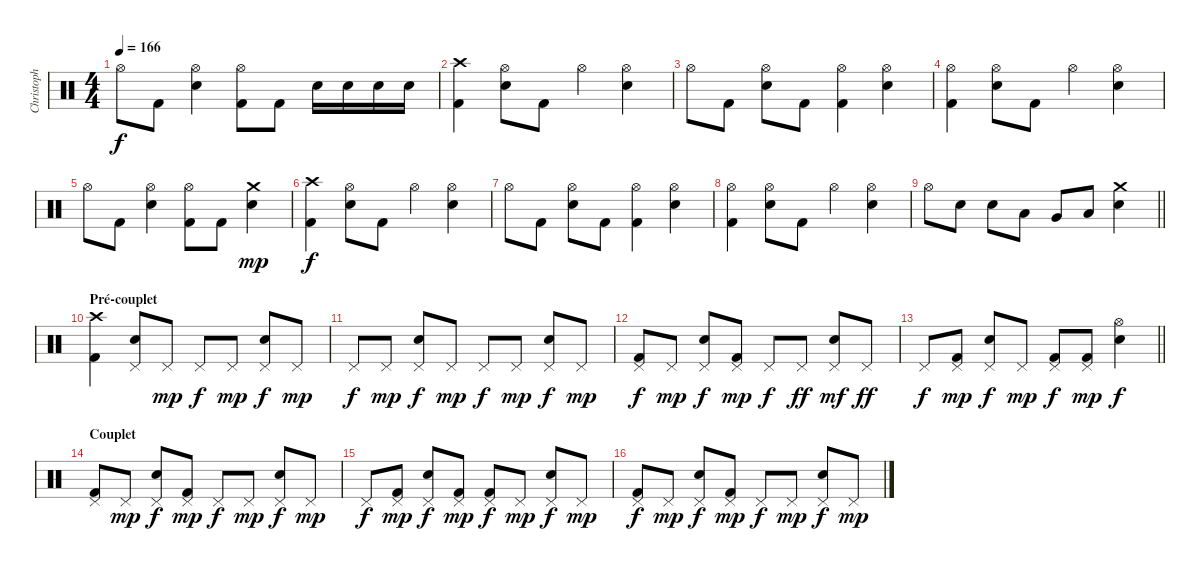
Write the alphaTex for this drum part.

\track ("Christoph" "Christoph") {instrument percussion}
\staff {score}
\articulation defaults
\ts (4 4)
\tempo 166
\clef neutral
\ks c "Hi-Hat (open)".8{dy f} "Kick (hit) 2".8
("Hi-Hat (open)" "Electric Snare (hit)").4 ("Hi-Hat (open)" "Kick (hit) 2").8 "Kick (hit) 2".8 "Electric Snare (hit)".16 "Electric Snare (hit)".16 "Electric Snare (hit)".16 "Electric Snare (hit)".16 |
("Crash high (hit)" "Kick (hit) 2").4 ("Hi-Hat (open)" "Electric Snare (hit)").8 "Kick (hit) 2".8 "Hi-Hat (open)".4 ("Hi-Hat (open)" "Electric Snare (hit)").4 |
"Hi-Hat (open)".8 "Kick (hit) 2".8 ("Hi-Hat (open)" "Electric Snare (hit)").8 "Kick (hit) 2".8 ("Hi-Hat (open)" "Kick (hit) 2").4 ("Hi-Hat (open)" "Electric Snare (hit)").4 |
("Hi-Hat (open)" "Kick (hit) 2").4 ("Hi-Hat (open)" "Electric Snare (hit)").8 "Kick (hit) 2".8 "Hi-Hat (open)".4 ("Hi-Hat (open)" "Electric Snare (hit)").4 |
"Hi-Hat (open)".8 "Kick (hit) 2".8 ("Hi-Hat (open)" "Electric Snare (hit)").4 ("Hi-Hat (open)" "Kick (hit) 2").8 "Kick (hit) 2".8 ("Crash medium (hit)" "Electric Snare (hit)").4{dy mp} |
("Crash high (hit)" "Kick (hit) 2").4{dy f} ("Hi-Hat (open)" "Electric Snare (hit)").8 "Kick (hit) 2".8 "Hi-Hat (open)".4 ("Hi-Hat (open)" "Electric Snare (hit)").4 |
"Hi-Hat (open)".8 "Kick (hit) 2".8 ("Hi-Hat (open)" "Electric Snare (hit)").8 "Kick (hit) 2".8 ("Hi-Hat (open)" "Kick (hit) 2").4 ("Hi-Hat (open)" "Electric Snare (hit)").4 |
("Hi-Hat (open)" "Kick (hit) 2").4 ("Hi-Hat (open)" "Electric Snare (hit)").8 "Kick (hit) 2".8 "Hi-Hat (open)".4 ("Hi-Hat (open)" "Electric Snare (hit)").4 |
\barLineRight lightlight "Hi-Hat (open)".8 "Electric Snare (hit)".8 "Electric Snare (hit)".8 "Low Tom (hit)".8 "Very Low Tom (hit)".8 "Low Floor Tom (hit)".8
("Crash medium (hit)" "Electric Snare (hit)").4 |
\section ("" "Pré-couplet")
("Crash high (hit)" "Kick (hit) 2").4 ("Pedal Hi-Hat (hit)" "Electric Snare (hit)").8 "Pedal Hi-Hat (hit)".8{dy mp} "Pedal Hi-Hat (hit)".8{dy f} "Pedal Hi-Hat (hit)".8{dy mp} ("Pedal Hi-Hat (hit)" "Electric Snare (hit)").8{dy f} "Pedal Hi-Hat (hit)".8{dy mp} |
"Pedal Hi-Hat (hit)".8{dy f} "Pedal Hi-Hat (hit)".8{dy mp} ("Pedal Hi-Hat (hit)" "Electric Snare (hit)").8{dy f} "Pedal Hi-Hat (hit)".8{dy mp} "Pedal Hi-Hat (hit)".8{dy f} "Pedal Hi-Hat (hit)".8{dy mp} ("Pedal Hi-Hat (hit)" "Electric Snare (hit)").8{dy f} "Pedal Hi-Hat (hit)".8{dy mp} |
("Pedal Hi-Hat (hit)" "Kick (hit) 2").8{dy f} "Pedal Hi-Hat (hit)".8{dy mp} ("Pedal Hi-Hat (hit)" "Electric Snare (hit)").8{dy f} ("Pedal Hi-Hat (hit)" "Kick (hit) 2").8{dy mp} "Pedal Hi-Hat (hit)".8{dy f} "Pedal Hi-Hat (hit)".8{dy ff} ("Pedal Hi-Hat (hit)" "Electric Snare (hit)").8{dy mf} "Pedal Hi-Hat (hit)".8{dy ff} |
\barLineRight lightlight "Pedal Hi-Hat (hit)".8{dy f}
("Pedal Hi-Hat (hit)" "Kick (hit) 2").8{dy mp} ("Pedal Hi-Hat (hit)" "Electric Snare (hit)").8{dy f} "Pedal Hi-Hat (hit)".8{dy mp} ("Pedal Hi-Hat (hit)" "Kick (hit) 2").8{dy f} ("Pedal Hi-Hat (hit)" "Kick (hit) 2").8{dy mp} ("Hi-Hat (open)" "Electric Snare (hit)").4{dy f} |
\section ("" "Couplet")
("Pedal Hi-Hat (hit)" "Kick (hit) 2").8 "Pedal Hi-Hat (hit)".8{dy mp} ("Pedal Hi-Hat (hit)" "Electric Snare (hit)").8{dy f} ("Pedal Hi-Hat (hit)" "Kick (hit) 2").8{dy mp} "Pedal Hi-Hat (hit)".8{dy f} "Pedal Hi-Hat (hit)".8{dy mp} ("Pedal Hi-Hat (hit)" "Electric Snare (hit)").8{dy f} "Pedal Hi-Hat (hit)".8{dy mp} |
"Pedal Hi-Hat (hit)".8{dy f} ("Pedal Hi-Hat (hit)" "Kick (hit) 2").8{dy mp} ("Pedal Hi-Hat (hit)" "Electric Snare (hit)").8{dy f} ("Pedal Hi-Hat (hit)" "Kick (hit) 2").8{dy mp} ("Pedal Hi-Hat (hit)" "Kick (hit) 2").8{dy f} "Pedal Hi-Hat (hit)".8{dy mp} ("Pedal Hi-Hat (hit)" "Electric Snare (hit)").8{dy f} "Pedal Hi-Hat (hit)".8{dy mp} |
("Pedal Hi-Hat (hit)" "Kick (hit) 2").8{dy f} "Pedal Hi-Hat (hit)".8{dy mp} ("Pedal Hi-Hat (hit)" "Electric Snare (hit)").8{dy f} ("Pedal Hi-Hat (hit)" "Kick (hit) 2").8{dy mp} "Pedal Hi-Hat (hit)".8{dy f} "Pedal Hi-Hat (hit)".8{dy mp} ("Pedal Hi-Hat (hit)" "Electric Snare (hit)").8{dy f} "Pedal Hi-Hat (hit)".8{dy mp}
